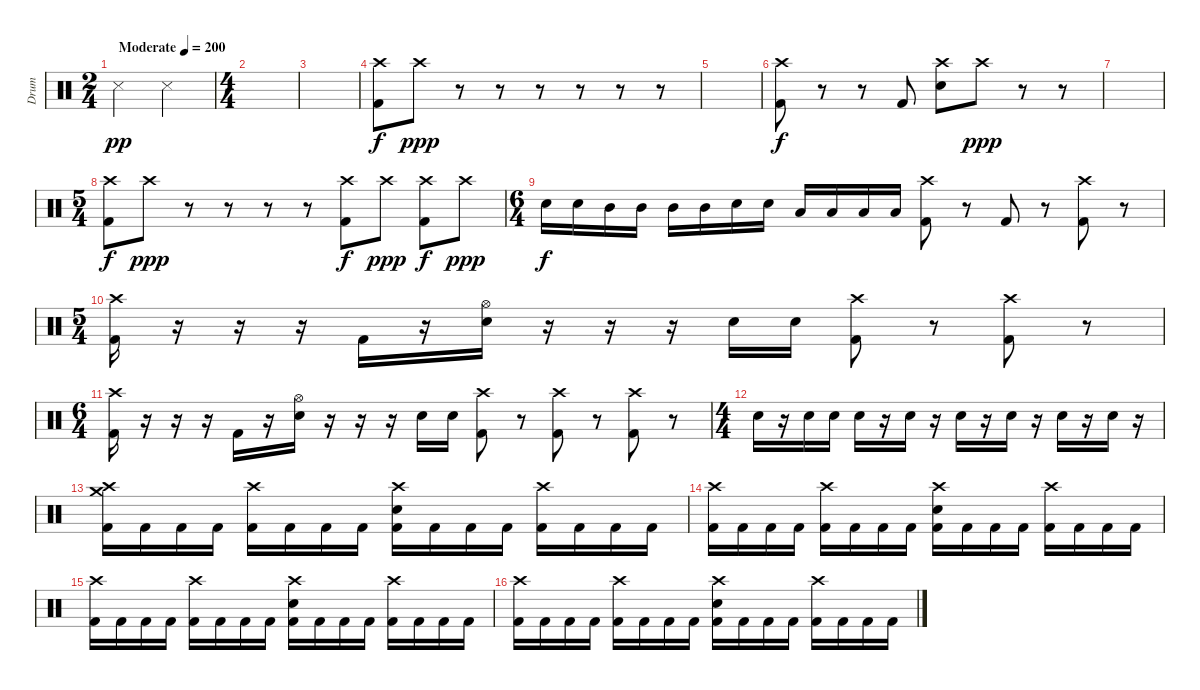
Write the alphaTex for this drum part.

\track ("Drum" "Drum") {instrument percussion}
\staff {score}
\articulation defaults
\ts (2 4)
\tempo (200 "Moderate")
\clef neutral
\ks c "Metronome (hit)".4{dy pp} "Metronome (hit)".4
|
\ts (4 4)
|
|
("Crash high (hit)" "Kick (hit) 2").8{dy f} "Crash high (hit)".8{dy ppp} r.8 r.8 r.8 r.8 r.8 r.8 |
|
("Crash high (hit)" "Kick (hit) 2").8{dy f} r.8 r.8 "Kick (hit) 2".8 ("Crash high (hit)" "Snare (hit) 2").8 "Crash high (hit)".8{dy ppp} r.8 r.8 |
|
\ts (5 4)
("Crash high (hit)" "Kick (hit) 2").8{dy f} "Crash high (hit)".8{dy ppp} r.8 r.8 r.8 r.8 ("Crash high (hit)" "Kick (hit) 2").8{dy f} "Crash high (hit)".8{dy ppp} ("Crash high (hit)" "Kick (hit) 2").8{dy f} "Crash high (hit)".8{dy ppp} |
\ts (6 4)
"Snare (hit) 2".16{dy f} "Snare (hit) 2".16 "Mid Tom (hit)".16 "Mid Tom (hit)".16 "Mid Tom (hit)".16 "Mid Tom (hit)".16 "Snare (hit) 2".16 "Snare (hit) 2".16 "Low Tom (hit)".16 "Low Tom (hit)".16 "Low Tom (hit)".16 "Low Tom (hit)".16 ("Crash high (hit)" "Kick (hit) 2").8 r.8 "Kick (hit) 2".8 r.8 ("Crash high (hit)" "Kick (hit) 2").8 r.8 |
\ts (5 4)
("Crash high (hit)" "Kick (hit) 2").16 r.16 r.16 r.16 "Kick (hit) 2".16 r.16 ("Hi-Hat (open)" "Snare (hit) 2").16 r.16 r.16 r.16 "Snare (hit) 2".16 "Snare (hit) 2".16 ("Crash high (hit)" "Kick (hit) 2").8 r.8 ("Crash high (hit)" "Kick (hit) 2").8 r.8 |
\ts (6 4)
("Crash high (hit)" "Kick (hit) 2").16 r.16 r.16 r.16 "Kick (hit) 2".16 r.16 ("Hi-Hat (open)" "Snare (hit) 2").16 r.16 r.16 r.16 "Snare (hit) 2".16 "Snare (hit) 2".16 ("Crash high (hit)" "Kick (hit) 2").8 r.8 ("Crash high (hit)" "Kick (hit) 2").8 r.8 ("Crash high (hit)" "Kick (hit) 2").8 r.8 |
\ts (4 4)
"Snare (hit) 2".16 r.16 "Snare (hit) 2".16 "Snare (hit) 2".16 "Snare (hit) 2".16 r.16 "Snare (hit) 2".16 r.16 "Snare (hit) 2".16 r.16 "Snare (hit) 2".16 r.16 "Snare (hit) 2".16 r.16 "Snare (hit) 2".16 r.16 |
("Crash medium (hit)" "Crash high (hit)" "Kick (hit) 2").16 "Kick (hit) 2".16 "Kick (hit) 2".16 "Kick (hit) 2".16 ("Crash high (hit)" "Kick (hit) 2").16 "Kick (hit) 2".16 "Kick (hit) 2".16 "Kick (hit) 2".16 ("Crash high (hit)" "Snare (hit) 2" "Kick (hit) 2").16 "Kick (hit) 2".16 "Kick (hit) 2".16 "Kick (hit) 2".16 ("Crash high (hit)" "Kick (hit) 2").16 "Kick (hit) 2".16 "Kick (hit) 2".16 "Kick (hit) 2".16 |
("Crash high (hit)" "Kick (hit) 2").16 "Kick (hit) 2".16 "Kick (hit) 2".16 "Kick (hit) 2".16 ("Crash high (hit)" "Kick (hit) 2").16 "Kick (hit) 2".16 "Kick (hit) 2".16 "Kick (hit) 2".16 ("Crash high (hit)" "Snare (hit) 2" "Kick (hit) 2").16 "Kick (hit) 2".16 "Kick (hit) 2".16 "Kick (hit) 2".16 ("Crash high (hit)" "Kick (hit) 2").16 "Kick (hit) 2".16 "Kick (hit) 2".16 "Kick (hit) 2".16 |
("Crash high (hit)" "Kick (hit) 2").16 "Kick (hit) 2".16 "Kick (hit) 2".16 "Kick (hit) 2".16 ("Crash high (hit)" "Kick (hit) 2").16 "Kick (hit) 2".16 "Kick (hit) 2".16 "Kick (hit) 2".16 ("Crash high (hit)" "Snare (hit) 2" "Kick (hit) 2").16 "Kick (hit) 2".16 "Kick (hit) 2".16 "Kick (hit) 2".16 ("Crash high (hit)" "Kick (hit) 2").16 "Kick (hit) 2".16 "Kick (hit) 2".16 "Kick (hit) 2".16 |
("Crash high (hit)" "Kick (hit) 2").16 "Kick (hit) 2".16 "Kick (hit) 2".16 "Kick (hit) 2".16 ("Crash high (hit)" "Kick (hit) 2").16 "Kick (hit) 2".16 "Kick (hit) 2".16 "Kick (hit) 2".16 ("Crash high (hit)" "Snare (hit) 2" "Kick (hit) 2").16 "Kick (hit) 2".16 "Kick (hit) 2".16 "Kick (hit) 2".16 ("Crash high (hit)" "Kick (hit) 2").16 "Kick (hit) 2".16 "Kick (hit) 2".16 "Kick (hit) 2".16
